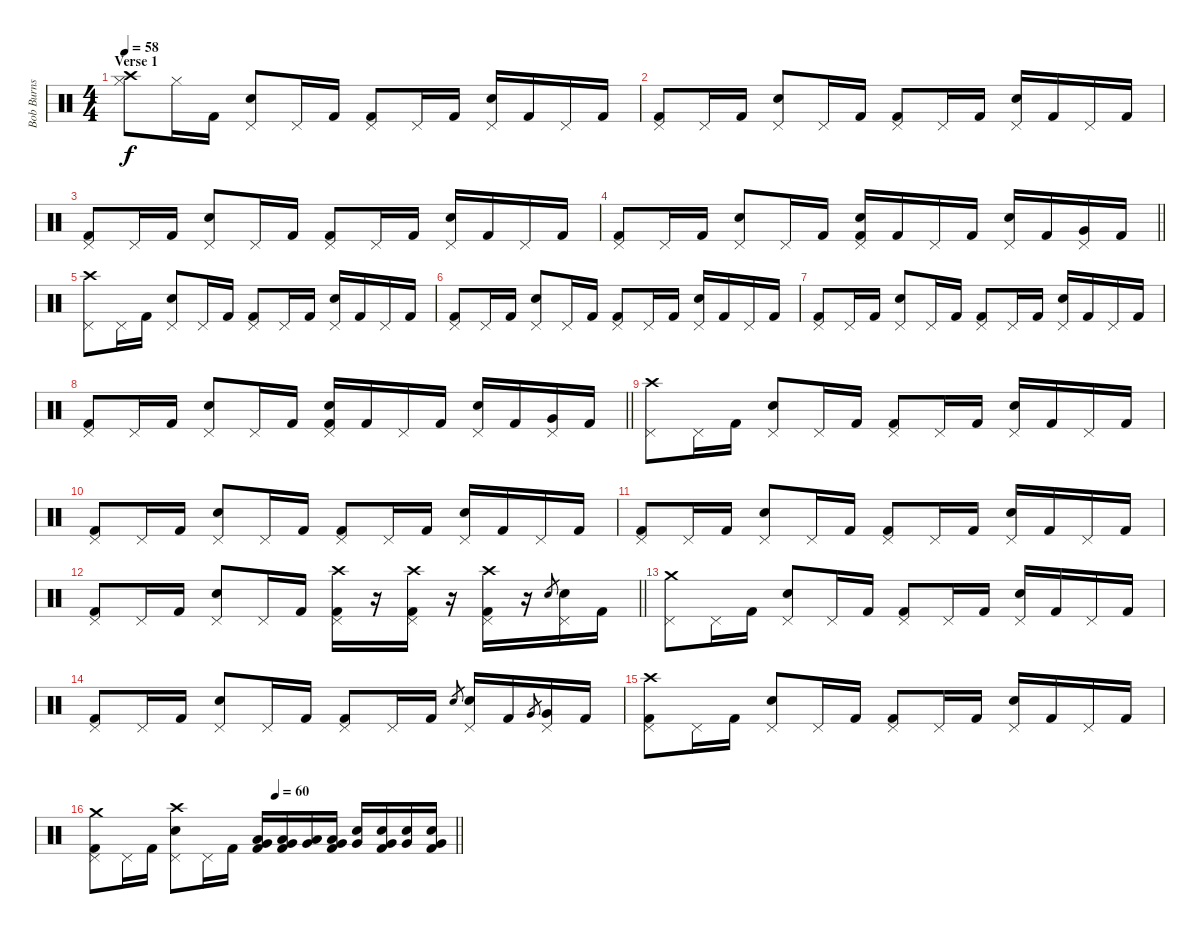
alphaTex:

\track ("Bob Burns (drums and percussion)" "Bob Burns ") {instrument percussion}
\staff {score}
\articulation defaults
\ts (4 4)
\section ("" "Verse 1")
\tempo 58
\clef neutral
\ks c
("Crash high (hit)" "Hi-Hat (closed)").8{dy f} "Hi-Hat (closed)".16 "Kick (hit) 2".16 ("Pedal Hi-Hat (hit)" "Electric Snare (hit)").8 "Pedal Hi-Hat (hit)".16 "Kick (hit) 2".16 ("Pedal Hi-Hat (hit)" "Kick (hit) 2").8 "Pedal Hi-Hat (hit)".16 "Kick (hit) 2".16 ("Pedal Hi-Hat (hit)" "Electric Snare (hit)").16 "Kick (hit) 2".16 "Pedal Hi-Hat (hit)".16 "Kick (hit) 2".16 |
("Pedal Hi-Hat (hit)" "Kick (hit) 2").8 "Pedal Hi-Hat (hit)".16 "Kick (hit) 2".16 ("Pedal Hi-Hat (hit)" "Electric Snare (hit)").8 "Pedal Hi-Hat (hit)".16 "Kick (hit) 2".16 ("Pedal Hi-Hat (hit)" "Kick (hit) 2").8 "Pedal Hi-Hat (hit)".16 "Kick (hit) 2".16 ("Pedal Hi-Hat (hit)" "Electric Snare (hit)").16 "Kick (hit) 2".16 "Pedal Hi-Hat (hit)".16 "Kick (hit) 2".16 |
("Pedal Hi-Hat (hit)" "Kick (hit) 2").8 "Pedal Hi-Hat (hit)".16 "Kick (hit) 2".16 ("Pedal Hi-Hat (hit)" "Electric Snare (hit)").8 "Pedal Hi-Hat (hit)".16 "Kick (hit) 2".16 ("Pedal Hi-Hat (hit)" "Kick (hit) 2").8 "Pedal Hi-Hat (hit)".16 "Kick (hit) 2".16 ("Pedal Hi-Hat (hit)" "Electric Snare (hit)").16 "Kick (hit) 2".16 "Pedal Hi-Hat (hit)".16 "Kick (hit) 2".16 |
\barLineRight lightlight
("Pedal Hi-Hat (hit)" "Kick (hit) 2").8 "Pedal Hi-Hat (hit)".16 "Kick (hit) 2".16 ("Pedal Hi-Hat (hit)" "Electric Snare (hit)").8 "Pedal Hi-Hat (hit)".16 "Kick (hit) 2".16 ("Pedal Hi-Hat (hit)" "Electric Snare (hit)" "Kick (hit) 2").16 "Kick (hit) 2".16 "Pedal Hi-Hat (hit)".16 "Kick (hit) 2".16 ("Pedal Hi-Hat (hit)" "Electric Snare (hit)").16 "Kick (hit) 2".16 ("Pedal Hi-Hat (hit)" "Very Low Tom (hit)").16 "Kick (hit) 2".16 |
("Crash high (hit)" "Pedal Hi-Hat (hit)").8 "Pedal Hi-Hat (hit)".16 "Kick (hit) 2".16 ("Pedal Hi-Hat (hit)" "Electric Snare (hit)").8 "Pedal Hi-Hat (hit)".16 "Kick (hit) 2".16 ("Pedal Hi-Hat (hit)" "Kick (hit) 2").8 "Pedal Hi-Hat (hit)".16 "Kick (hit) 2".16 ("Pedal Hi-Hat (hit)" "Electric Snare (hit)").16 "Kick (hit) 2".16 "Pedal Hi-Hat (hit)".16 "Kick (hit) 2".16 |
("Pedal Hi-Hat (hit)" "Kick (hit) 2").8 "Pedal Hi-Hat (hit)".16 "Kick (hit) 2".16 ("Pedal Hi-Hat (hit)" "Electric Snare (hit)").8 "Pedal Hi-Hat (hit)".16 "Kick (hit) 2".16 ("Pedal Hi-Hat (hit)" "Kick (hit) 2").8 "Pedal Hi-Hat (hit)".16 "Kick (hit) 2".16 ("Pedal Hi-Hat (hit)" "Electric Snare (hit)").16 "Kick (hit) 2".16 "Pedal Hi-Hat (hit)".16 "Kick (hit) 2".16 |
("Pedal Hi-Hat (hit)" "Kick (hit) 2").8 "Pedal Hi-Hat (hit)".16 "Kick (hit) 2".16 ("Pedal Hi-Hat (hit)" "Electric Snare (hit)").8 "Pedal Hi-Hat (hit)".16 "Kick (hit) 2".16 ("Pedal Hi-Hat (hit)" "Kick (hit) 2").8 "Pedal Hi-Hat (hit)".16 "Kick (hit) 2".16 ("Pedal Hi-Hat (hit)" "Electric Snare (hit)").16 "Kick (hit) 2".16 "Pedal Hi-Hat (hit)".16 "Kick (hit) 2".16 |
\barLineRight lightlight
("Pedal Hi-Hat (hit)" "Kick (hit) 2").8 "Pedal Hi-Hat (hit)".16 "Kick (hit) 2".16 ("Pedal Hi-Hat (hit)" "Electric Snare (hit)").8 "Pedal Hi-Hat (hit)".16 "Kick (hit) 2".16 ("Pedal Hi-Hat (hit)" "Electric Snare (hit)" "Kick (hit) 2").16 "Kick (hit) 2".16 "Pedal Hi-Hat (hit)".16 "Kick (hit) 2".16 ("Pedal Hi-Hat (hit)" "Electric Snare (hit)").16 "Kick (hit) 2".16 ("Pedal Hi-Hat (hit)" "Very Low Tom (hit)").16 "Kick (hit) 2".16 |
("Crash high (hit)" "Pedal Hi-Hat (hit)").8 "Pedal Hi-Hat (hit)".16 "Kick (hit) 2".16 ("Pedal Hi-Hat (hit)" "Electric Snare (hit)").8 "Pedal Hi-Hat (hit)".16 "Kick (hit) 2".16 ("Pedal Hi-Hat (hit)" "Kick (hit) 2").8 "Pedal Hi-Hat (hit)".16 "Kick (hit) 2".16 ("Pedal Hi-Hat (hit)" "Electric Snare (hit)").16 "Kick (hit) 2".16 "Pedal Hi-Hat (hit)".16 "Kick (hit) 2".16 |
("Pedal Hi-Hat (hit)" "Kick (hit) 2").8 "Pedal Hi-Hat (hit)".16 "Kick (hit) 2".16 ("Pedal Hi-Hat (hit)" "Electric Snare (hit)").8 "Pedal Hi-Hat (hit)".16 "Kick (hit) 2".16 ("Pedal Hi-Hat (hit)" "Kick (hit) 2").8 "Pedal Hi-Hat (hit)".16 "Kick (hit) 2".16 ("Pedal Hi-Hat (hit)" "Electric Snare (hit)").16 "Kick (hit) 2".16 "Pedal Hi-Hat (hit)".16 "Kick (hit) 2".16 |
("Pedal Hi-Hat (hit)" "Kick (hit) 2").8 "Pedal Hi-Hat (hit)".16 "Kick (hit) 2".16 ("Pedal Hi-Hat (hit)" "Electric Snare (hit)").8 "Pedal Hi-Hat (hit)".16 "Kick (hit) 2".16 ("Pedal Hi-Hat (hit)" "Kick (hit) 2").8 "Pedal Hi-Hat (hit)".16 "Kick (hit) 2".16 ("Pedal Hi-Hat (hit)" "Electric Snare (hit)").16 "Kick (hit) 2".16 "Pedal Hi-Hat (hit)".16 "Kick (hit) 2".16 |
\barLineRight lightlight
("Pedal Hi-Hat (hit)" "Kick (hit) 2").8 "Pedal Hi-Hat (hit)".16 "Kick (hit) 2".16 ("Pedal Hi-Hat (hit)" "Electric Snare (hit)").8 "Pedal Hi-Hat (hit)".16 "Kick (hit) 2".16 ("Crash high (hit)" "Pedal Hi-Hat (hit)" "Kick (hit) 2").16 r.16 ("Crash high (hit)" "Pedal Hi-Hat (hit)" "Kick (hit) 2").16 r.16 ("Crash high (hit)" "Pedal Hi-Hat (hit)" "Kick (hit) 2").16 r.16 "Electric Snare (hit)".8{gr} ("Pedal Hi-Hat (hit)" "Electric Snare (hit)").16 "Kick (hit) 2".16 |
("Crash medium (hit)" "Pedal Hi-Hat (hit)").8 "Pedal Hi-Hat (hit)".16 "Kick (hit) 2".16 ("Pedal Hi-Hat (hit)" "Electric Snare (hit)").8 "Pedal Hi-Hat (hit)".16 "Kick (hit) 2".16 ("Pedal Hi-Hat (hit)" "Kick (hit) 2").8 "Pedal Hi-Hat (hit)".16 "Kick (hit) 2".16 ("Pedal Hi-Hat (hit)" "Electric Snare (hit)").16 "Kick (hit) 2".16 "Pedal Hi-Hat (hit)".16 "Kick (hit) 2".16 |
("Pedal Hi-Hat (hit)" "Kick (hit) 2").8 "Pedal Hi-Hat (hit)".16 "Kick (hit) 2".16 ("Pedal Hi-Hat (hit)" "Electric Snare (hit)").8 "Pedal Hi-Hat (hit)".16 "Kick (hit) 2".16 ("Pedal Hi-Hat (hit)" "Kick (hit) 2").8 "Pedal Hi-Hat (hit)".16 "Kick (hit) 2".16 "Electric Snare (hit)".8{gr} ("Pedal Hi-Hat (hit)" "Electric Snare (hit)").16 "Kick (hit) 2".16 "Very Low Tom (hit)".8{gr} ("Pedal Hi-Hat (hit)" "Very Low Tom (hit)").16 "Kick (hit) 2".16 |
("Crash high (hit)" "Pedal Hi-Hat (hit)" "Kick (hit) 2").8 "Pedal Hi-Hat (hit)".16 "Kick (hit) 2".16 ("Pedal Hi-Hat (hit)" "Electric Snare (hit)").8 "Pedal Hi-Hat (hit)".16 "Kick (hit) 2".16 ("Pedal Hi-Hat (hit)" "Kick (hit) 2").8 "Pedal Hi-Hat (hit)".16 "Kick (hit) 2".16 ("Pedal Hi-Hat (hit)" "Electric Snare (hit)").16 "Kick (hit) 2".16 "Pedal Hi-Hat (hit)".16 "Kick (hit) 2".16 |
\tempo (60 0.5)
\barLineRight lightlight
("Crash medium (hit)" "Pedal Hi-Hat (hit)" "Kick (hit) 2").8 "Pedal Hi-Hat (hit)".16 "Kick (hit) 2".16 ("Crash high (hit)" "Pedal Hi-Hat (hit)" "Electric Snare (hit)").8 "Pedal Hi-Hat (hit)".16 "Kick (hit) 2".16 ("Low Tom (hit)" "Very Low Tom (hit)" "Kick (hit) 2").16 ("Low Tom (hit)" "Very Low Tom (hit)" "Kick (hit) 2").16 ("Low Tom (hit)" "Very Low Tom (hit)").16 ("Low Tom (hit)" "Very Low Tom (hit)" "Kick (hit) 2").16 ("Electric Snare (hit)" "Very Low Tom (hit)").16 ("Electric Snare (hit)" "Very Low Tom (hit)" "Kick (hit) 2").16 ("Electric Snare (hit)" "Very Low Tom (hit)").16 ("Electric Snare (hit)" "Very Low Tom (hit)" "Kick (hit) 2").16
